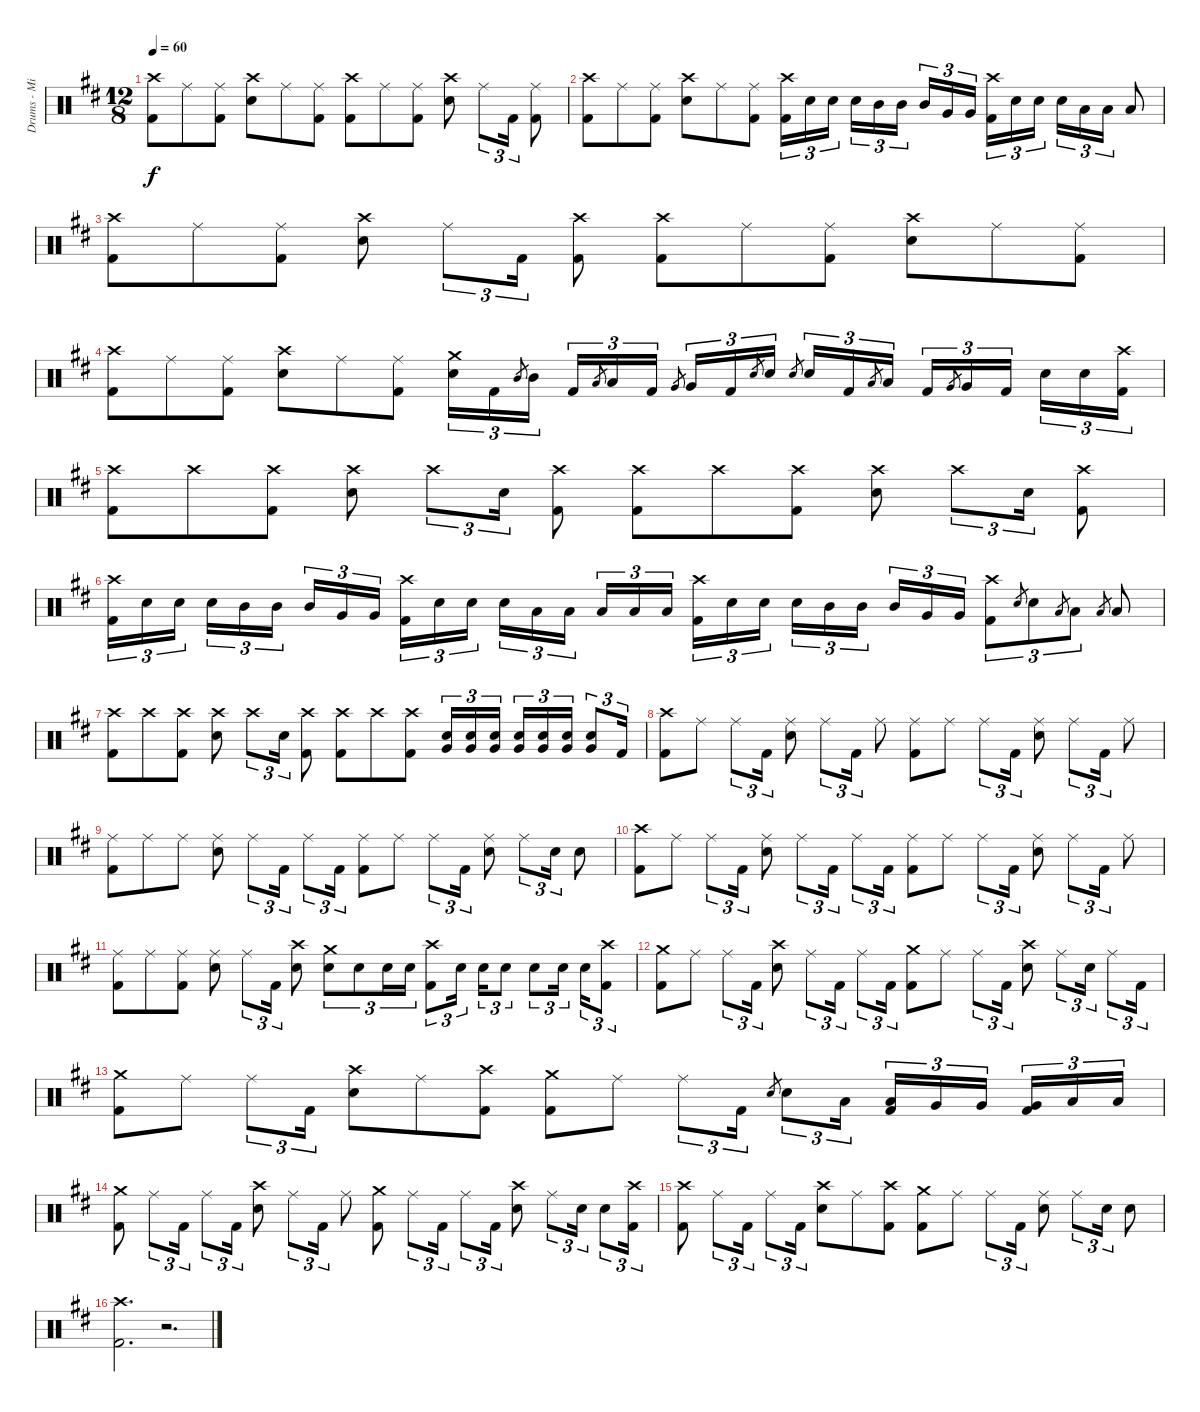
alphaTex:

\track ("Drums - Mike Portnoy" "Drums - Mi") {instrument percussion}
\staff {score}
\articulation defaults
\ts (12 8)
\tempo 60
\clef neutral
\ks d
("Crash high (hit)" "Kick (hit) 2").8{dy f} "Ride (middle)".8 ("Ride (middle)" "Kick (hit) 2").8 ("Crash high (hit)" "Snare (hit) 2").8 "Ride (middle)".8 ("Ride (middle)" "Kick (hit) 2").8 ("Crash high (hit)" "Kick (hit) 2").8 "Ride (middle)".8 ("Ride (middle)" "Kick (hit) 2").8 ("Crash high (hit)" "Snare (hit) 2").8 "Ride (middle)".8{tu (3 2)} "Kick (hit) 2".16{tu (3 2)} ("Ride (middle)" "Kick (hit) 2").8 |
("Crash high (hit)" "Kick (hit) 2").8 "Ride (middle)".8 ("Ride (middle)" "Kick (hit) 2").8 ("Crash high (hit)" "Snare (hit) 2").8 "Ride (middle)".8 ("Ride (middle)" "Kick (hit) 2").8 ("Crash high (hit)" "Kick (hit) 2").16{tu (3 2)} "Snare (hit) 2".16{tu (3 2)} "Snare (hit) 2".16{tu (3 2) beam splitsecondary} "Snare (hit) 2".16{tu (3 2)} "Mid Tom (hit)".16{tu (3 2)} "Mid Tom (hit)".16{tu (3 2) beam splitsecondary} "Mid Tom (hit)".16{tu (3 2)} "Very Low Tom (hit)".16{tu (3 2)} "Very Low Tom (hit)".16{tu (3 2)} ("Crash high (hit)" "Kick (hit) 2").16{tu (3 2)} "Snare (hit) 2".16{tu (3 2)} "Snare (hit) 2".16{tu (3 2) beam splitsecondary} "Snare (hit) 2".16{tu (3 2)} "Low Tom (hit)".16{tu (3 2)} "Low Tom (hit)".16{tu (3 2)} "Low Tom (hit)".8 |
("Crash high (hit)" "Kick (hit) 2").8 "Ride (middle)".8 ("Ride (middle)" "Kick (hit) 2").8 ("Crash high (hit)" "Snare (hit) 2").8 "Ride (middle)".8{tu (3 2)} "Kick (hit) 2".16{tu (3 2)} ("Crash high (hit)" "Kick (hit) 2").8 ("Crash high (hit)" "Kick (hit) 2").8 "Ride (middle)".8 ("Ride (middle)" "Kick (hit) 2").8 ("Crash high (hit)" "Snare (hit) 2").8 "Ride (middle)".8 ("Ride (middle)" "Kick (hit) 2").8 |
("Crash high (hit)" "Kick (hit) 2").8 "Ride (middle)".8 ("Ride (middle)" "Kick (hit) 2").8 ("Crash high (hit)" "Snare (hit) 2").8 "Ride (middle)".8 ("Ride (middle)" "Kick (hit) 2").8 ("Crash medium (hit)" "Snare (hit) 2").16{tu (3 2)} "Kick (hit) 2".16{tu (3 2)} "Mid Tom (hit)".8{gr} "Mid Tom (hit)".16{tu (3 2) beam splitsecondary} "Kick (hit) 2".16{tu (3 2)} "Low Tom (hit)".8{gr} "Low Tom (hit)".16{tu (3 2)} "Kick (hit) 2".16{tu (3 2)} "Very Low Tom (hit)".8{gr beam splitsecondary} "Very Low Tom (hit)".16{tu (3 2)} "Kick (hit) 2".16{tu (3 2)} "Snare (hit) 2".8{gr} "Snare (hit) 2".16{tu (3 2)} "Snare (hit) 2".8{gr} "Snare (hit) 2".16{tu (3 2)} "Kick (hit) 2".16{tu (3 2)} "Low Tom (hit)".8{gr} "Low Tom (hit)".16{tu (3 2) beam splitsecondary} "Kick (hit) 2".16{tu (3 2)} "Very Low Tom (hit)".8{gr} "Very Low Tom (hit)".16{tu (3 2)} "Kick (hit) 2".16{tu (3 2) beam splitsecondary} "Snare (hit) 2".16{tu (3 2)} "Snare (hit) 2".16{tu (3 2)} ("Crash high (hit)" "Kick (hit) 2").16{tu (3 2)} |
("Crash high (hit)" "Kick (hit) 2").8 "Crash high (hit)".8 ("Crash high (hit)" "Kick (hit) 2").8 ("Crash high (hit)" "Snare (hit) 2").8 "Crash high (hit)".8{tu (3 2)} "Snare (hit) 2".16{tu (3 2)} ("Crash high (hit)" "Kick (hit) 2").8 ("Crash high (hit)" "Kick (hit) 2").8 "Crash high (hit)".8 ("Crash high (hit)" "Kick (hit) 2").8 ("Crash high (hit)" "Snare (hit) 2").8 "Crash high (hit)".8{tu (3 2)} "Snare (hit) 2".16{tu (3 2)} ("Crash high (hit)" "Kick (hit) 2").8 |
("Crash high (hit)" "Kick (hit) 2").16{tu (3 2)} "Snare (hit) 2".16{tu (3 2)} "Snare (hit) 2".16{tu (3 2) beam splitsecondary} "Snare (hit) 2".16{tu (3 2)} "Mid Tom (hit)".16{tu (3 2)} "Mid Tom (hit)".16{tu (3 2) beam splitsecondary} "Mid Tom (hit)".16{tu (3 2)} "Very Low Tom (hit)".16{tu (3 2)} "Very Low Tom (hit)".16{tu (3 2)} ("Crash high (hit)" "Kick (hit) 2").16{tu (3 2)} "Snare (hit) 2".16{tu (3 2)} "Snare (hit) 2".16{tu (3 2) beam splitsecondary} "Snare (hit) 2".16{tu (3 2)} "Low Tom (hit)".16{tu (3 2)} "Low Tom (hit)".16{tu (3 2) beam splitsecondary} "Low Tom (hit)".16{tu (3 2)} "Low Floor Tom (hit)".16{tu (3 2)} "Low Floor Tom (hit)".16{tu (3 2)} ("Crash high (hit)" "Kick (hit) 2").16{tu (3 2)} "Snare (hit) 2".16{tu (3 2)} "Snare (hit) 2".16{tu (3 2) beam splitsecondary} "Snare (hit) 2".16{tu (3 2)} "Mid Tom (hit)".16{tu (3 2)} "Mid Tom (hit)".16{tu (3 2) beam splitsecondary} "Mid Tom (hit)".16{tu (3 2)} "Very Low Tom (hit)".16{tu (3 2)} "Very Low Tom (hit)".16{tu (3 2)} ("Crash high (hit)" "Kick (hit) 2").8{tu (3 2)} "Snare (hit) 2".8{gr} "Snare (hit) 2".8{tu (3 2)} "Low Tom (hit)".8{gr} "Low Tom (hit)".8{tu (3 2)} "Low Floor Tom (hit)".8{gr} "Low Floor Tom (hit)".8 |
("Crash high (hit)" "Kick (hit) 2").8 "Crash high (hit)".8 ("Crash high (hit)" "Kick (hit) 2").8 ("Crash high (hit)" "Snare (hit) 2").8 "Crash high (hit)".8{tu (3 2)} "Snare (hit) 2".16{tu (3 2)} ("Crash high (hit)" "Kick (hit) 2").8 ("Crash high (hit)" "Kick (hit) 2").8 "Crash high (hit)".8 ("Crash high (hit)" "Kick (hit) 2").8 ("Snare (hit) 2" "Very Low Tom (hit)").16{tu (3 2)} ("Snare (hit) 2" "Very Low Tom (hit)").16{tu (3 2)} ("Snare (hit) 2" "Very Low Tom (hit)").16{tu (3 2) beam splitsecondary} ("Snare (hit) 2" "Very Low Tom (hit)").16{tu (3 2)} ("Snare (hit) 2" "Very Low Tom (hit)").16{tu (3 2)} ("Snare (hit) 2" "Very Low Tom (hit)").16{tu (3 2)} ("Snare (hit) 2" "Very Low Tom (hit)").8{tu (3 2)} "Kick (hit) 2".16{tu (3 2)} |
("Crash high (hit)" "Kick (hit) 2").8 "Ride (middle)".8 "Ride (middle)".8{tu (3 2)} "Kick (hit) 2".16{tu (3 2)} ("Ride (middle)" "Snare (hit) 2").8 "Ride (middle)".8{tu (3 2)} "Kick (hit) 2".16{tu (3 2)} "Ride (middle)".8 ("Ride (middle)" "Kick (hit) 2").8 "Ride (middle)".8 "Ride (middle)".8{tu (3 2)} "Kick (hit) 2".16{tu (3 2)} ("Ride (middle)" "Snare (hit) 2").8 "Ride (middle)".8{tu (3 2)} "Kick (hit) 2".16{tu (3 2)} "Ride (middle)".8 |
("Ride (middle)" "Kick (hit) 2").8 "Ride (middle)".8 "Ride (middle)".8 ("Ride (middle)" "Snare (hit) 2").8 "Ride (middle)".8{tu (3 2)} "Kick (hit) 2".16{tu (3 2)} "Ride (middle)".8{tu (3 2)} "Kick (hit) 2".16{tu (3 2)} ("Ride (middle)" "Kick (hit) 2").8 "Ride (middle)".8 "Ride (middle)".8{tu (3 2)} "Kick (hit) 2".16{tu (3 2)} ("Ride (middle)" "Snare (hit) 2").8 "Ride (middle)".8{tu (3 2)} "Snare (hit) 2".16{tu (3 2)} "Snare (hit) 2".8 |
("Crash high (hit)" "Kick (hit) 2").8 "Ride (middle)".8 "Ride (middle)".8{tu (3 2)} "Kick (hit) 2".16{tu (3 2)} ("Ride (middle)" "Snare (hit) 2").8 "Ride (middle)".8{tu (3 2)} "Kick (hit) 2".16{tu (3 2)} "Ride (middle)".8{tu (3 2)} "Kick (hit) 2".16{tu (3 2)} ("Ride (middle)" "Kick (hit) 2").8 "Ride (middle)".8 "Ride (middle)".8{tu (3 2)} "Kick (hit) 2".16{tu (3 2)} ("Ride (middle)" "Snare (hit) 2").8 "Ride (middle)".8{tu (3 2)} "Kick (hit) 2".16{tu (3 2)} "Ride (middle)".8 |
("Ride (middle)" "Kick (hit) 2").8 "Ride (middle)".8 ("Ride (middle)" "Kick (hit) 2").8 ("Ride (middle)" "Snare (hit) 2").8 "Ride (middle)".8{tu (3 2)} "Kick (hit) 2".16{tu (3 2)} ("Crash high (hit)" "Snare (hit) 2").8 ("Crash medium (hit)" "Snare (hit) 2").8{tu (3 2)} "Snare (hit) 2".8{tu (3 2)} "Snare (hit) 2".16{tu (3 2)} "Snare (hit) 2".16{tu (3 2)} ("Crash high (hit)" "Kick (hit) 2").8{tu (3 2)} "Snare (hit) 2".16{tu (3 2)} "Snare (hit) 2".16{tu (3 2)} "Snare (hit) 2".8{tu (3 2)} "Snare (hit) 2".8{tu (3 2)} "Snare (hit) 2".16{tu (3 2) beam splitsecondary} "Snare (hit) 2".16{tu (3 2)} ("Crash high (hit)" "Kick (hit) 2").8{tu (3 2)} |
("Crash medium (hit)" "Kick (hit) 2").8 "Ride (middle)".8 "Ride (middle)".8{tu (3 2)} "Kick (hit) 2".16{tu (3 2)} ("Crash high (hit)" "Snare (hit) 2").8 "Ride (middle)".8{tu (3 2)} "Kick (hit) 2".16{tu (3 2)} "Ride (middle)".8{tu (3 2)} "Kick (hit) 2".16{tu (3 2)} ("Crash medium (hit)" "Kick (hit) 2").8 "Ride (middle)".8 "Ride (middle)".8{tu (3 2)} "Kick (hit) 2".16{tu (3 2)} ("Crash high (hit)" "Snare (hit) 2").8 "Ride (middle)".8{tu (3 2)} "Snare (hit) 2".16{tu (3 2)} "Ride (middle)".8{tu (3 2)} "Kick (hit) 2".16{tu (3 2)} |
("Crash medium (hit)" "Kick (hit) 2").8 "Ride (middle)".8 "Ride (middle)".8{tu (3 2)} "Kick (hit) 2".16{tu (3 2)} ("Crash high (hit)" "Snare (hit) 2").8 "Ride (middle)".8 ("Crash high (hit)" "Kick (hit) 2").8 ("Crash medium (hit)" "Kick (hit) 2").8 "Ride (middle)".8 "Ride (middle)".8{tu (3 2)} "Kick (hit) 2".16{tu (3 2)} "Snare (hit) 2".8{gr} "Snare (hit) 2".8{tu (3 2)} "Low Tom (hit)".16{tu (3 2) beam splitsecondary} ("Low Tom (hit)" "Kick (hit) 2").16{tu (3 2)} "Very Low Tom (hit)".16{tu (3 2)} "Very Low Tom (hit)".16{tu (3 2) beam splitsecondary} ("Very Low Tom (hit)" "Kick (hit) 2").16{tu (3 2)} "Low Floor Tom (hit)".16{tu (3 2)} "Low Floor Tom (hit)".16{tu (3 2)} |
("Crash medium (hit)" "Kick (hit) 2").8 "Ride (middle)".8{tu (3 2)} "Kick (hit) 2".16{tu (3 2)} "Ride (middle)".8{tu (3 2)} "Kick (hit) 2".16{tu (3 2)} ("Crash high (hit)" "Snare (hit) 2").8 "Ride (middle)".8{tu (3 2)} "Kick (hit) 2".16{tu (3 2)} "Ride (middle)".8 ("Crash medium (hit)" "Kick (hit) 2").8 "Ride (middle)".8{tu (3 2)} "Kick (hit) 2".16{tu (3 2)} "Ride (middle)".8{tu (3 2)} "Kick (hit) 2".16{tu (3 2)} ("Crash high (hit)" "Snare (hit) 2").8 "Ride (middle)".8{tu (3 2)} "Snare (hit) 2".16{tu (3 2)} "Snare (hit) 2".8{tu (3 2)} ("Crash high (hit)" "Kick (hit) 2").16{tu (3 2)} |
("Crash high (hit)" "Kick (hit) 2").8 "Ride (middle)".8{tu (3 2)} "Kick (hit) 2".16{tu (3 2)} "Ride (middle)".8{tu (3 2)} "Kick (hit) 2".16{tu (3 2)} ("Crash high (hit)" "Snare (hit) 2").8 "Ride (middle)".8 ("Crash high (hit)" "Kick (hit) 2").8 ("Crash medium (hit)" "Kick (hit) 2").8 "Ride (middle)".8 "Ride (middle)".8{tu (3 2)} "Kick (hit) 2".16{tu (3 2)} ("Ride (middle)" "Snare (hit) 2").8 "Ride (middle)".8{tu (3 2)} "Snare (hit) 2".16{tu (3 2)} "Snare (hit) 2".8 |
("Crash high (hit)" "Kick (hit) 2").2{d} r.2{d}
